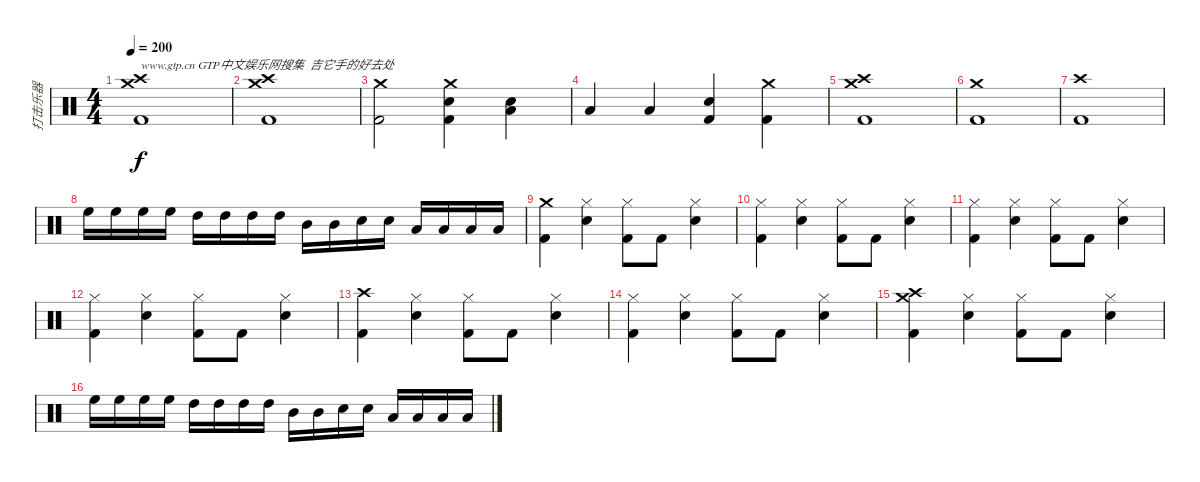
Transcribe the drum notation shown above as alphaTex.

\track ("打击乐器" "打击乐器") {instrument percussion}
\staff {score}
\articulation defaults
\ts (4 4)
\tempo 200
\clef neutral
\ks c
("Crash high (hit)" "Crash medium (hit)" "Kick (hit) 2").1{txt "www.gtp.cn GTP中文娱乐网搜集  吉它手的好去处" dy f} |
("Crash high (hit)" "Crash medium (hit)" "Kick (hit) 2").1 |
("Crash medium (hit)" "Kick (hit) 2").2 ("Crash medium (hit)" "Kick (hit) 2" "Snare (hit) 2").4 ("Low Floor Tom (hit)" "Snare (hit) 2").4 |
"Low Tom (hit)".4 "Low Floor Tom (hit)".4 ("Kick (hit) 2" "Snare (hit) 2").4 ("Kick (hit) 2" "Crash medium (hit)").4 |
("Crash medium (hit)" "Crash high (hit)" "Kick (hit) 2").1 |
("Crash medium (hit)" "Kick (hit) 2").1 |
("Crash high (hit)" "Kick (hit) 2").1 |
"High Floor Tom (hit)".16 "High Floor Tom (hit)".16 "High Floor Tom (hit)".16 "High Floor Tom (hit)".16 "High Tom (hit)".16 "High Tom (hit)".16 "High Tom (hit)".16 "High Tom (hit)".16 "Mid Tom (hit)".16 "Mid Tom (hit)".16 "Snare (hit) 2".16 "Snare (hit) 2".16 "Low Floor Tom (hit)".16 "Low Floor Tom (hit)".16 "Low Tom (hit)".16 "Low Tom (hit)".16 |
("Crash medium (hit)" "Kick (hit) 2").4 ("Hi-Hat (closed)" "Snare (hit) 2").4 ("Hi-Hat (closed)" "Kick (hit) 2").8 "Kick (hit) 2".8 ("Hi-Hat (closed)" "Snare (hit) 2").4 |
("Hi-Hat (closed)" "Kick (hit) 2").4 ("Hi-Hat (closed)" "Snare (hit) 2").4 ("Hi-Hat (closed)" "Kick (hit) 2").8 "Kick (hit) 2".8 ("Hi-Hat (closed)" "Snare (hit) 2").4 |
("Hi-Hat (closed)" "Kick (hit) 2").4 ("Hi-Hat (closed)" "Snare (hit) 2").4 ("Hi-Hat (closed)" "Kick (hit) 2").8 "Kick (hit) 2".8 ("Hi-Hat (closed)" "Snare (hit) 2").4 |
("Hi-Hat (closed)" "Kick (hit) 2").4 ("Hi-Hat (closed)" "Snare (hit) 2").4 ("Hi-Hat (closed)" "Kick (hit) 2").8 "Kick (hit) 2".8 ("Hi-Hat (closed)" "Snare (hit) 2").4 |
("Crash high (hit)" "Kick (hit) 2").4 ("Hi-Hat (closed)" "Snare (hit) 2").4 ("Hi-Hat (closed)" "Kick (hit) 2").8 "Kick (hit) 2".8 ("Hi-Hat (closed)" "Snare (hit) 2").4 |
("Hi-Hat (closed)" "Kick (hit) 2").4 ("Hi-Hat (closed)" "Snare (hit) 2").4 ("Hi-Hat (closed)" "Kick (hit) 2").8 "Kick (hit) 2".8 ("Hi-Hat (closed)" "Snare (hit) 2").4 |
("Crash high (hit)" "Crash medium (hit)" "Kick (hit) 2").4 ("Hi-Hat (closed)" "Snare (hit) 2").4 ("Hi-Hat (closed)" "Kick (hit) 2").8 "Kick (hit) 2".8 ("Hi-Hat (closed)" "Snare (hit) 2").4 |
"High Floor Tom (hit)".16 "High Floor Tom (hit)".16 "High Floor Tom (hit)".16 "High Floor Tom (hit)".16 "High Tom (hit)".16 "High Tom (hit)".16 "High Tom (hit)".16 "High Tom (hit)".16 "Mid Tom (hit)".16 "Mid Tom (hit)".16 "Snare (hit) 2".16 "Snare (hit) 2".16 "Low Floor Tom (hit)".16 "Low Floor Tom (hit)".16 "Low Tom (hit)".16 "Low Tom (hit)".16
